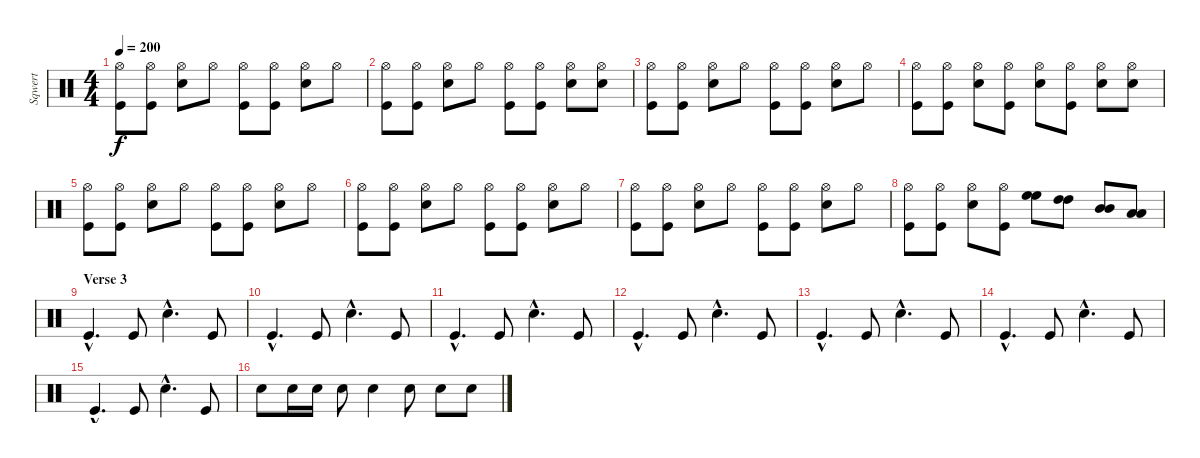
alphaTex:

\track ("Sqwert" "Sqwert") {instrument percussion}
\staff {score}
\articulation defaults
\ts (4 4)
\tempo 200
\clef neutral
\ks c
("Hi-Hat (open)" "Kick (hit)").8{dy f} ("Hi-Hat (open)" "Kick (hit)").8 ("Hi-Hat (open)" "Snare (hit) 2").8 "Hi-Hat (open)".8 ("Hi-Hat (open)" "Kick (hit)").8 ("Hi-Hat (open)" "Kick (hit)").8 ("Hi-Hat (open)" "Snare (hit) 2").8 "Hi-Hat (open)".8 |
("Hi-Hat (open)" "Kick (hit)").8 ("Hi-Hat (open)" "Kick (hit)").8 ("Hi-Hat (open)" "Snare (hit) 2").8 "Hi-Hat (open)".8 ("Hi-Hat (open)" "Kick (hit)").8 ("Hi-Hat (open)" "Kick (hit)").8 ("Hi-Hat (open)" "Snare (hit) 2").8 ("Hi-Hat (open)" "Snare (hit) 2").8 |
("Hi-Hat (open)" "Kick (hit)").8 ("Hi-Hat (open)" "Kick (hit)").8 ("Hi-Hat (open)" "Snare (hit) 2").8 "Hi-Hat (open)".8 ("Hi-Hat (open)" "Kick (hit)").8 ("Hi-Hat (open)" "Kick (hit)").8 ("Hi-Hat (open)" "Snare (hit) 2").8 "Hi-Hat (open)".8 |
("Hi-Hat (open)" "Kick (hit)").8 ("Hi-Hat (open)" "Kick (hit)").8 ("Hi-Hat (open)" "Snare (hit) 2").8 ("Hi-Hat (open)" "Kick (hit)").8 ("Hi-Hat (open)" "Snare (hit) 2").8 ("Hi-Hat (open)" "Kick (hit)").8 ("Hi-Hat (open)" "Snare (hit) 2").8 ("Hi-Hat (open)" "Snare (hit) 2").8 |
("Hi-Hat (open)" "Kick (hit)").8 ("Hi-Hat (open)" "Kick (hit)").8 ("Hi-Hat (open)" "Snare (hit) 2").8 "Hi-Hat (open)".8 ("Hi-Hat (open)" "Kick (hit)").8 ("Hi-Hat (open)" "Kick (hit)").8 ("Hi-Hat (open)" "Snare (hit) 2").8 "Hi-Hat (open)".8 |
("Hi-Hat (open)" "Kick (hit)").8 ("Hi-Hat (open)" "Kick (hit)").8 ("Hi-Hat (open)" "Snare (hit) 2").8 "Hi-Hat (open)".8 ("Hi-Hat (open)" "Kick (hit)").8 ("Hi-Hat (open)" "Kick (hit)").8 ("Hi-Hat (open)" "Snare (hit) 2").8 "Hi-Hat (open)".8 |
("Hi-Hat (open)" "Kick (hit)").8 ("Hi-Hat (open)" "Kick (hit)").8 ("Hi-Hat (open)" "Snare (hit) 2").8 "Hi-Hat (open)".8 ("Hi-Hat (open)" "Kick (hit)").8 ("Hi-Hat (open)" "Kick (hit)").8 ("Hi-Hat (open)" "Snare (hit) 2").8 "Hi-Hat (open)".8 |
("Hi-Hat (open)" "Kick (hit)").8 ("Hi-Hat (open)" "Kick (hit)").8 ("Hi-Hat (open)" "Snare (hit) 2").8 ("Hi-Hat (open)" "Kick (hit)").8 ("High Floor Tom (hit)" "High Floor Tom (hit)").8 ("High Tom (hit)" "High Tom (hit)").8 ("Mid Tom (hit)" "Mid Tom (hit)").8 ("Low Tom (hit)" "Low Tom (hit)").8 |
\section ("" "Verse 3")
"Kick (hit)"{hac}.4{d} "Kick (hit)".8 "Snare (hit) 2"{hac}.4{d} "Kick (hit)".8 |
"Kick (hit)"{hac}.4{d} "Kick (hit)".8 "Snare (hit) 2"{hac}.4{d} "Kick (hit)".8 |
"Kick (hit)"{hac}.4{d} "Kick (hit)".8 "Snare (hit) 2"{hac}.4{d} "Kick (hit)".8 |
"Kick (hit)"{hac}.4{d} "Kick (hit)".8 "Snare (hit) 2"{hac}.4{d} "Kick (hit)".8 |
"Kick (hit)"{hac}.4{d} "Kick (hit)".8 "Snare (hit) 2"{hac}.4{d} "Kick (hit)".8 |
"Kick (hit)"{hac}.4{d} "Kick (hit)".8 "Snare (hit) 2"{hac}.4{d} "Kick (hit)".8 |
"Kick (hit)"{hac}.4{d} "Kick (hit)".8 "Snare (hit) 2"{hac}.4{d} "Kick (hit)".8 |
"Snare (hit) 2".8 "Snare (hit) 2".16 "Snare (hit) 2".16 "Snare (hit) 2".8 "Snare (hit) 2".4 "Snare (hit) 2".8 "Snare (hit) 2".8 "Snare (hit) 2".8
